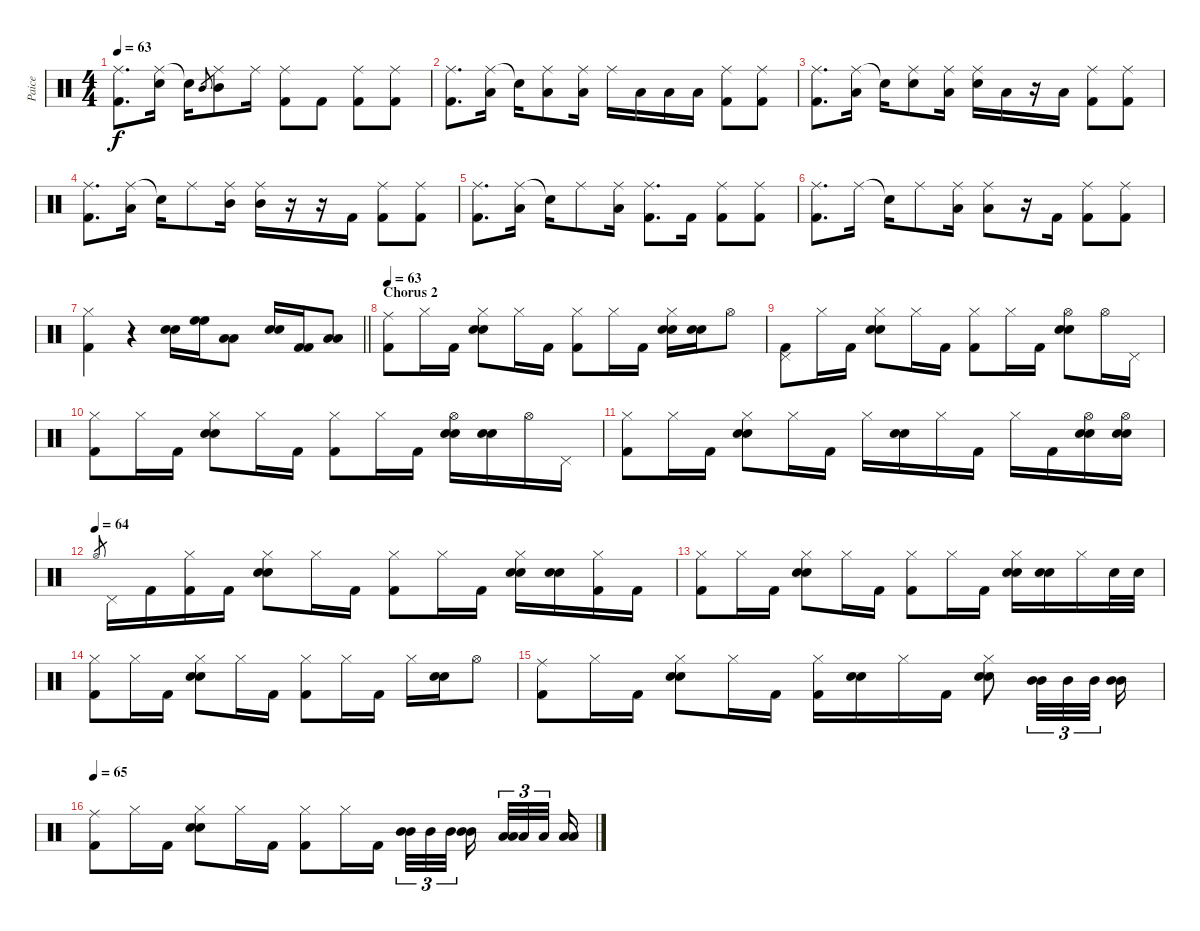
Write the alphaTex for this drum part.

\track ("Paice" "Paice") {instrument percussion}
\staff {score}
\articulation defaults
\ts (4 4)
\tempo 63
\clef neutral
\ks c
("Ride (middle)" "Kick (hit) 2").8{d dy f} ("Ride (middle)" "Electric Snare (hit)").16 "Snare (hit)"{t}.16 "Mid Tom (hit)".8{gr} ("Ride (middle)" "Mid Tom (hit)").8 "Ride (middle)".16 ("Ride (middle)" "Kick (hit) 2").8 "Kick (hit) 2".8 ("Ride (middle)" "Kick (hit) 2").8 ("Ride (middle)" "Kick (hit) 2").8 |
("Ride (middle)" "Kick (hit) 2").8{d} ("Ride (middle)" "Low Tom (hit)").16 "Snare (hit)"{t}.16 ("Ride (middle)" "Low Tom (hit)").8 ("Ride (middle)" "Low Tom (hit)").16 "Ride (middle)".16 "Low Tom (hit)".16 "Low Tom (hit)".16 "Low Tom (hit)".16 ("Ride (middle)" "Kick (hit) 2").8 ("Ride (middle)" "Kick (hit) 2").8 |
("Ride (middle)" "Kick (hit) 2").8{d} ("Ride (middle)" "Low Tom (hit)").16 "Snare (hit)"{t}.16 ("Ride (middle)" "Electric Snare (hit)").8 ("Ride (middle)" "Low Floor Tom (hit)").16 ("Ride (middle)" "Electric Snare (hit)").16 "Low Tom (hit)".16 r.16 "Low Tom (hit)".16 ("Ride (middle)" "Kick (hit) 2").8 ("Ride (middle)" "Kick (hit) 2").8 |
("Ride (middle)" "Kick (hit) 2").8{d} ("Ride (middle)" "Low Tom (hit)").16 "Snare (hit)"{t}.16 "Ride (middle)".8 ("Ride (middle)" "Mid Tom (hit)").16 ("Ride (middle)" "Mid Tom (hit)").16 r.16 r.16 "Kick (hit) 2".16 ("Ride (middle)" "Kick (hit) 2").8 ("Ride (middle)" "Kick (hit) 2").8 |
("Ride (middle)" "Kick (hit) 2").8{d} ("Ride (middle)" "Low Tom (hit)").16 "Snare (hit)"{t}.16 "Ride (middle)".8 ("Ride (middle)" "Low Tom (hit)").16 ("Ride (middle)" "Kick (hit) 2").8{d} "Kick (hit) 2".16 ("Ride (middle)" "Kick (hit) 2").8 ("Ride (middle)" "Kick (hit) 2").8 |
("Ride (middle)" "Kick (hit) 2").8{d} "Ride (middle)".16 "Snare (hit)"{t}.16 "Ride (middle)".8 ("Ride (middle)" "Low Tom (hit)").16 ("Ride (middle)" "Low Tom (hit)").8 r.16 "Kick (hit) 2".16 ("Ride (middle)" "Kick (hit) 2").8 ("Ride (middle)" "Kick (hit) 2").8 |
\barLineRight lightlight
("Hi-Hat (closed)" "Kick (hit) 2").4 r.4 ("Electric Snare (hit)" "Electric Snare (hit)").16 ("High Floor Tom (hit)" "High Floor Tom (hit)").16 ("Low Tom (hit)" "Low Tom (hit)").8 ("Electric Snare (hit)" "Electric Snare (hit)").16 ("Kick (hit) 2" "Kick (hit) 2").16 ("Low Tom (hit)" "Low Tom (hit)").8 |
\section ("" "Chorus 2")
\tempo 63
("Ride (middle)" "Kick (hit) 2").8 "Hi-Hat (closed)".16 "Kick (hit) 2".16 ("Hi-Hat (closed)" "Electric Snare (hit)" "Electric Snare (hit)").8 "Hi-Hat (closed)".16 "Kick (hit) 2".16 ("Hi-Hat (closed)" "Kick (hit) 2").8 "Hi-Hat (closed)".16 "Kick (hit) 2".16 ("Hi-Hat (closed)" "Electric Snare (hit)" "Electric Snare (hit)").16 ("Electric Snare (hit)" "Electric Snare (hit)").16 "Hi-Hat (open)".8 |
("Pedal Hi-Hat (hit)" "Kick (hit) 2").8 "Hi-Hat (closed)".16 "Kick (hit) 2".16 ("Hi-Hat (closed)" "Electric Snare (hit)" "Electric Snare (hit)").8 "Hi-Hat (closed)".16 "Kick (hit) 2".16 ("Hi-Hat (closed)" "Kick (hit) 2").8 "Hi-Hat (closed)".16 "Kick (hit) 2".16 ("Hi-Hat (open)" "Electric Snare (hit)" "Electric Snare (hit)").8 "Hi-Hat (open)".16 "Pedal Hi-Hat (hit)".16 |
("Hi-Hat (closed)" "Kick (hit) 2").8 "Hi-Hat (closed)".16 "Kick (hit) 2".16 ("Hi-Hat (closed)" "Electric Snare (hit)" "Electric Snare (hit)").8 "Hi-Hat (closed)".16 "Kick (hit) 2".16 ("Hi-Hat (closed)" "Kick (hit) 2").8 "Hi-Hat (closed)".16 "Kick (hit) 2".16 ("Hi-Hat (open)" "Electric Snare (hit)" "Electric Snare (hit)").16 ("Electric Snare (hit)" "Electric Snare (hit)").16 "Hi-Hat (open)".16 "Pedal Hi-Hat (hit)".16 |
("Hi-Hat (closed)" "Kick (hit) 2").8 "Hi-Hat (closed)".16 "Kick (hit) 2".16 ("Hi-Hat (closed)" "Electric Snare (hit)" "Electric Snare (hit)").8 "Hi-Hat (closed)".16 "Kick (hit) 2".16 "Hi-Hat (closed)".16 ("Electric Snare (hit)" "Electric Snare (hit)").16 "Hi-Hat (closed)".16 "Kick (hit) 2".16 "Hi-Hat (closed)".16 "Kick (hit) 2".16 ("Hi-Hat (open)" "Electric Snare (hit)" "Electric Snare (hit)").16 ("Hi-Hat (open)" "Electric Snare (hit)" "Electric Snare (hit)").16 |
\tempo (64)
"Hi-Hat (open)".8{gr} "Pedal Hi-Hat (hit)".16 "Kick (hit) 2".16 ("Hi-Hat (closed)" "Kick (hit) 2").16 "Kick (hit) 2".16 ("Hi-Hat (closed)" "Electric Snare (hit)" "Electric Snare (hit)").8 "Hi-Hat (closed)".16 "Kick (hit) 2".16 ("Hi-Hat (closed)" "Kick (hit) 2").8 "Hi-Hat (closed)".16 "Kick (hit) 2".16 ("Hi-Hat (closed)" "Electric Snare (hit)" "Electric Snare (hit)").16 ("Electric Snare (hit)" "Electric Snare (hit)").16 ("Hi-Hat (closed)" "Kick (hit) 2").16 "Kick (hit) 2".16 |
("Hi-Hat (closed)" "Kick (hit) 2").8 "Hi-Hat (closed)".16 "Kick (hit) 2".16 ("Hi-Hat (closed)" "Electric Snare (hit)" "Electric Snare (hit)").8 "Hi-Hat (closed)".16 "Kick (hit) 2".16 ("Hi-Hat (closed)" "Kick (hit) 2").8 "Hi-Hat (closed)".16 "Kick (hit) 2".16 ("Hi-Hat (closed)" "Electric Snare (hit)" "Electric Snare (hit)").16 ("Electric Snare (hit)" "Electric Snare (hit)").16 "Hi-Hat (closed)".16 "Electric Snare (hit)".32 "Electric Snare (hit)".32 |
("Hi-Hat (closed)" "Kick (hit) 2").8 "Hi-Hat (closed)".16 "Kick (hit) 2".16 ("Hi-Hat (closed)" "Electric Snare (hit)" "Electric Snare (hit)").8 "Hi-Hat (closed)".16 "Kick (hit) 2".16 ("Hi-Hat (closed)" "Kick (hit) 2").8 "Hi-Hat (closed)".16 "Kick (hit) 2".16 "Hi-Hat (closed)".16 ("Electric Snare (hit)" "Electric Snare (hit)").16 "Hi-Hat (open)".8 |
("Ride (middle)" "Kick (hit) 2").8 "Hi-Hat (closed)".16 "Kick (hit) 2".16 ("Hi-Hat (closed)" "Electric Snare (hit)" "Electric Snare (hit)").8 "Hi-Hat (closed)".16 "Kick (hit) 2".16 ("Hi-Hat (closed)" "Kick (hit) 2").16 ("Electric Snare (hit)" "Electric Snare (hit)").16 "Hi-Hat (closed)".16 "Kick (hit) 2".16 ("Hi-Hat (closed)" "Electric Snare (hit)" "Electric Snare (hit)").8 ("Mid Tom (hit)" "Mid Tom (hit)").32{tu (3 2)} "Mid Tom (hit)".32{tu (3 2)} "Mid Tom (hit)".32{tu (3 2) beam splitsecondary} ("Mid Tom (hit)" "Mid Tom (hit)").16 |
\tempo 65
("Ride (middle)" "Kick (hit) 2").8 "Hi-Hat (closed)".16 "Kick (hit) 2".16 ("Hi-Hat (closed)" "Electric Snare (hit)" "Electric Snare (hit)").8 "Hi-Hat (closed)".16 "Kick (hit) 2".16 ("Hi-Hat (closed)" "Kick (hit) 2").8 "Hi-Hat (closed)".16 "Kick (hit) 2".16 ("Mid Tom (hit)" "Mid Tom (hit)").32{tu (3 2)} "Mid Tom (hit)".32{tu (3 2)} "Mid Tom (hit)".32{tu (3 2) beam splitsecondary} ("Mid Tom (hit)" "Mid Tom (hit)").16{beam splitsecondary} ("Low Tom (hit)" "Low Tom (hit)").32{tu (3 2)} "Low Tom (hit)".32{tu (3 2)} "Low Tom (hit)".32{tu (3 2) beam splitsecondary} ("Low Tom (hit)" "Low Tom (hit)").16
